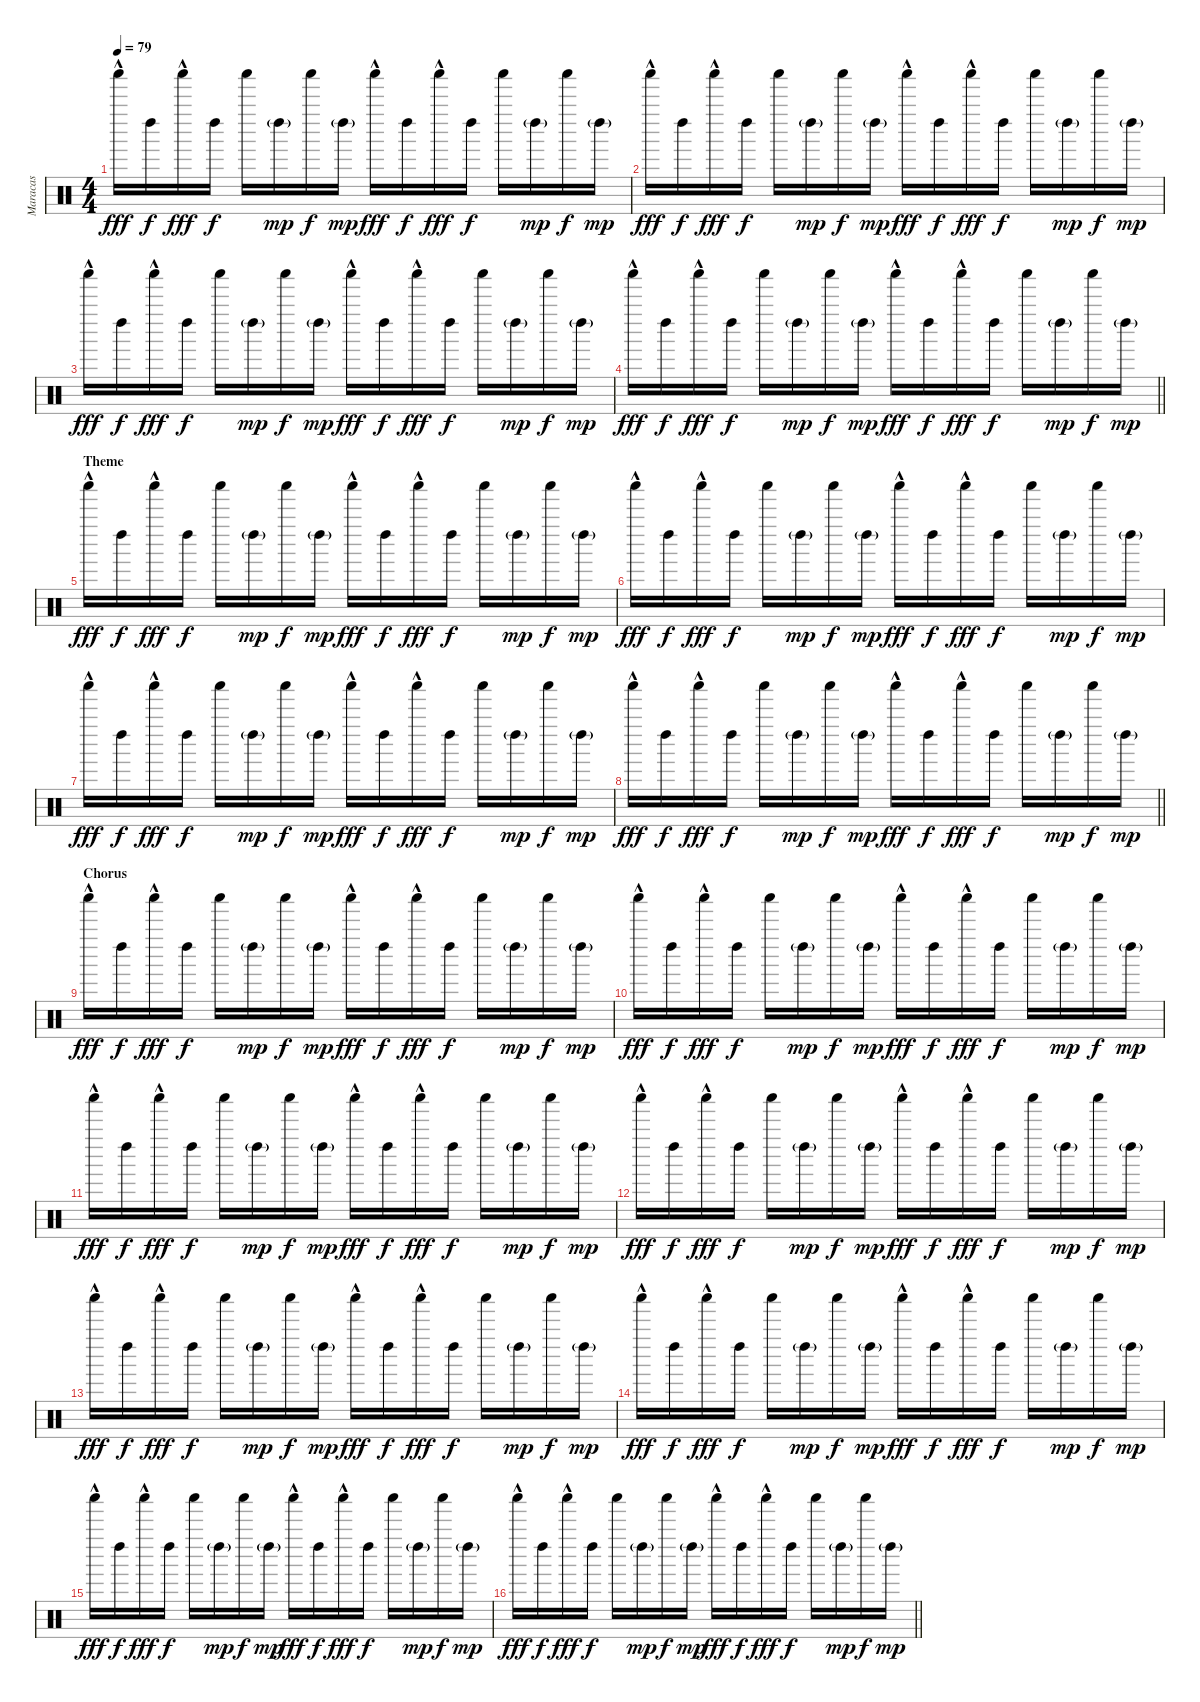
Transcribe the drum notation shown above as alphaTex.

\track ("Maracas" "Maracas") {instrument percussion}
\staff {score}
\articulation defaults
\ts (4 4)
\tempo 79
\clef neutral
\ks c "Shaker (hit)"{hac}.16{dy fff} "Left Maraca (hit)".16{dy f} "Shaker (hit)"{hac}.16{dy fff} "Left Maraca (hit)".16{dy f} "Shaker (hit)".16 "Left Maraca (hit)"{g}.16{dy mp} "Shaker (hit)".16{dy f} "Left Maraca (hit)"{g}.16{dy mp} "Shaker (hit)"{hac}.16{dy fff} "Left Maraca (hit)".16{dy f} "Shaker (hit)"{hac}.16{dy fff} "Left Maraca (hit)".16{dy f} "Shaker (hit)".16 "Left Maraca (hit)"{g}.16{dy mp} "Shaker (hit)".16{dy f} "Left Maraca (hit)"{g}.16{dy mp}
|
"Shaker (hit)"{hac}.16{dy fff} "Left Maraca (hit)".16{dy f} "Shaker (hit)"{hac}.16{dy fff} "Left Maraca (hit)".16{dy f} "Shaker (hit)".16 "Left Maraca (hit)"{g}.16{dy mp} "Shaker (hit)".16{dy f} "Left Maraca (hit)"{g}.16{dy mp} "Shaker (hit)"{hac}.16{dy fff} "Left Maraca (hit)".16{dy f} "Shaker (hit)"{hac}.16{dy fff} "Left Maraca (hit)".16{dy f} "Shaker (hit)".16 "Left Maraca (hit)"{g}.16{dy mp} "Shaker (hit)".16{dy f} "Left Maraca (hit)"{g}.16{dy mp} |
"Shaker (hit)"{hac}.16{dy fff} "Left Maraca (hit)".16{dy f} "Shaker (hit)"{hac}.16{dy fff} "Left Maraca (hit)".16{dy f} "Shaker (hit)".16 "Left Maraca (hit)"{g}.16{dy mp} "Shaker (hit)".16{dy f} "Left Maraca (hit)"{g}.16{dy mp} "Shaker (hit)"{hac}.16{dy fff} "Left Maraca (hit)".16{dy f} "Shaker (hit)"{hac}.16{dy fff} "Left Maraca (hit)".16{dy f} "Shaker (hit)".16 "Left Maraca (hit)"{g}.16{dy mp} "Shaker (hit)".16{dy f} "Left Maraca (hit)"{g}.16{dy mp} |
\barLineRight lightlight "Shaker (hit)"{hac}.16{dy fff} "Left Maraca (hit)".16{dy f} "Shaker (hit)"{hac}.16{dy fff} "Left Maraca (hit)".16{dy f} "Shaker (hit)".16 "Left Maraca (hit)"{g}.16{dy mp} "Shaker (hit)".16{dy f} "Left Maraca (hit)"{g}.16{dy mp} "Shaker (hit)"{hac}.16{dy fff} "Left Maraca (hit)".16{dy f} "Shaker (hit)"{hac}.16{dy fff} "Left Maraca (hit)".16{dy f} "Shaker (hit)".16 "Left Maraca (hit)"{g}.16{dy mp} "Shaker (hit)".16{dy f} "Left Maraca (hit)"{g}.16{dy mp}
|
\section ("" "Theme")
"Shaker (hit)"{hac}.16{dy fff} "Left Maraca (hit)".16{dy f} "Shaker (hit)"{hac}.16{dy fff} "Left Maraca (hit)".16{dy f} "Shaker (hit)".16 "Left Maraca (hit)"{g}.16{dy mp} "Shaker (hit)".16{dy f} "Left Maraca (hit)"{g}.16{dy mp} "Shaker (hit)"{hac}.16{dy fff} "Left Maraca (hit)".16{dy f} "Shaker (hit)"{hac}.16{dy fff} "Left Maraca (hit)".16{dy f} "Shaker (hit)".16 "Left Maraca (hit)"{g}.16{dy mp} "Shaker (hit)".16{dy f} "Left Maraca (hit)"{g}.16{dy mp} |
"Shaker (hit)"{hac}.16{dy fff} "Left Maraca (hit)".16{dy f} "Shaker (hit)"{hac}.16{dy fff} "Left Maraca (hit)".16{dy f} "Shaker (hit)".16 "Left Maraca (hit)"{g}.16{dy mp} "Shaker (hit)".16{dy f} "Left Maraca (hit)"{g}.16{dy mp} "Shaker (hit)"{hac}.16{dy fff} "Left Maraca (hit)".16{dy f} "Shaker (hit)"{hac}.16{dy fff} "Left Maraca (hit)".16{dy f} "Shaker (hit)".16 "Left Maraca (hit)"{g}.16{dy mp} "Shaker (hit)".16{dy f} "Left Maraca (hit)"{g}.16{dy mp} |
"Shaker (hit)"{hac}.16{dy fff} "Left Maraca (hit)".16{dy f} "Shaker (hit)"{hac}.16{dy fff} "Left Maraca (hit)".16{dy f} "Shaker (hit)".16 "Left Maraca (hit)"{g}.16{dy mp} "Shaker (hit)".16{dy f} "Left Maraca (hit)"{g}.16{dy mp} "Shaker (hit)"{hac}.16{dy fff} "Left Maraca (hit)".16{dy f} "Shaker (hit)"{hac}.16{dy fff} "Left Maraca (hit)".16{dy f} "Shaker (hit)".16 "Left Maraca (hit)"{g}.16{dy mp} "Shaker (hit)".16{dy f} "Left Maraca (hit)"{g}.16{dy mp} |
\barLineRight lightlight "Shaker (hit)"{hac}.16{dy fff} "Left Maraca (hit)".16{dy f} "Shaker (hit)"{hac}.16{dy fff} "Left Maraca (hit)".16{dy f} "Shaker (hit)".16 "Left Maraca (hit)"{g}.16{dy mp} "Shaker (hit)".16{dy f} "Left Maraca (hit)"{g}.16{dy mp} "Shaker (hit)"{hac}.16{dy fff} "Left Maraca (hit)".16{dy f} "Shaker (hit)"{hac}.16{dy fff} "Left Maraca (hit)".16{dy f} "Shaker (hit)".16 "Left Maraca (hit)"{g}.16{dy mp} "Shaker (hit)".16{dy f} "Left Maraca (hit)"{g}.16{dy mp}
|
\section ("" "Chorus")
"Shaker (hit)"{hac}.16{dy fff} "Left Maraca (hit)".16{dy f} "Shaker (hit)"{hac}.16{dy fff} "Left Maraca (hit)".16{dy f} "Shaker (hit)".16 "Left Maraca (hit)"{g}.16{dy mp} "Shaker (hit)".16{dy f} "Left Maraca (hit)"{g}.16{dy mp} "Shaker (hit)"{hac}.16{dy fff} "Left Maraca (hit)".16{dy f} "Shaker (hit)"{hac}.16{dy fff} "Left Maraca (hit)".16{dy f} "Shaker (hit)".16 "Left Maraca (hit)"{g}.16{dy mp} "Shaker (hit)".16{dy f} "Left Maraca (hit)"{g}.16{dy mp} |
"Shaker (hit)"{hac}.16{dy fff} "Left Maraca (hit)".16{dy f} "Shaker (hit)"{hac}.16{dy fff} "Left Maraca (hit)".16{dy f} "Shaker (hit)".16 "Left Maraca (hit)"{g}.16{dy mp} "Shaker (hit)".16{dy f} "Left Maraca (hit)"{g}.16{dy mp} "Shaker (hit)"{hac}.16{dy fff} "Left Maraca (hit)".16{dy f} "Shaker (hit)"{hac}.16{dy fff} "Left Maraca (hit)".16{dy f} "Shaker (hit)".16 "Left Maraca (hit)"{g}.16{dy mp} "Shaker (hit)".16{dy f} "Left Maraca (hit)"{g}.16{dy mp} |
"Shaker (hit)"{hac}.16{dy fff} "Left Maraca (hit)".16{dy f} "Shaker (hit)"{hac}.16{dy fff} "Left Maraca (hit)".16{dy f} "Shaker (hit)".16 "Left Maraca (hit)"{g}.16{dy mp} "Shaker (hit)".16{dy f} "Left Maraca (hit)"{g}.16{dy mp} "Shaker (hit)"{hac}.16{dy fff} "Left Maraca (hit)".16{dy f} "Shaker (hit)"{hac}.16{dy fff} "Left Maraca (hit)".16{dy f} "Shaker (hit)".16 "Left Maraca (hit)"{g}.16{dy mp} "Shaker (hit)".16{dy f} "Left Maraca (hit)"{g}.16{dy mp} |
"Shaker (hit)"{hac}.16{dy fff} "Left Maraca (hit)".16{dy f} "Shaker (hit)"{hac}.16{dy fff} "Left Maraca (hit)".16{dy f} "Shaker (hit)".16 "Left Maraca (hit)"{g}.16{dy mp} "Shaker (hit)".16{dy f} "Left Maraca (hit)"{g}.16{dy mp} "Shaker (hit)"{hac}.16{dy fff} "Left Maraca (hit)".16{dy f} "Shaker (hit)"{hac}.16{dy fff} "Left Maraca (hit)".16{dy f} "Shaker (hit)".16 "Left Maraca (hit)"{g}.16{dy mp} "Shaker (hit)".16{dy f} "Left Maraca (hit)"{g}.16{dy mp} |
"Shaker (hit)"{hac}.16{dy fff} "Left Maraca (hit)".16{dy f} "Shaker (hit)"{hac}.16{dy fff} "Left Maraca (hit)".16{dy f} "Shaker (hit)".16 "Left Maraca (hit)"{g}.16{dy mp} "Shaker (hit)".16{dy f} "Left Maraca (hit)"{g}.16{dy mp} "Shaker (hit)"{hac}.16{dy fff} "Left Maraca (hit)".16{dy f} "Shaker (hit)"{hac}.16{dy fff} "Left Maraca (hit)".16{dy f} "Shaker (hit)".16 "Left Maraca (hit)"{g}.16{dy mp} "Shaker (hit)".16{dy f} "Left Maraca (hit)"{g}.16{dy mp} |
"Shaker (hit)"{hac}.16{dy fff} "Left Maraca (hit)".16{dy f} "Shaker (hit)"{hac}.16{dy fff} "Left Maraca (hit)".16{dy f} "Shaker (hit)".16 "Left Maraca (hit)"{g}.16{dy mp} "Shaker (hit)".16{dy f} "Left Maraca (hit)"{g}.16{dy mp} "Shaker (hit)"{hac}.16{dy fff} "Left Maraca (hit)".16{dy f} "Shaker (hit)"{hac}.16{dy fff} "Left Maraca (hit)".16{dy f} "Shaker (hit)".16 "Left Maraca (hit)"{g}.16{dy mp} "Shaker (hit)".16{dy f} "Left Maraca (hit)"{g}.16{dy mp} |
"Shaker (hit)"{hac}.16{dy fff} "Left Maraca (hit)".16{dy f} "Shaker (hit)"{hac}.16{dy fff} "Left Maraca (hit)".16{dy f} "Shaker (hit)".16 "Left Maraca (hit)"{g}.16{dy mp} "Shaker (hit)".16{dy f} "Left Maraca (hit)"{g}.16{dy mp} "Shaker (hit)"{hac}.16{dy fff} "Left Maraca (hit)".16{dy f} "Shaker (hit)"{hac}.16{dy fff} "Left Maraca (hit)".16{dy f} "Shaker (hit)".16 "Left Maraca (hit)"{g}.16{dy mp} "Shaker (hit)".16{dy f} "Left Maraca (hit)"{g}.16{dy mp} |
\barLineRight lightlight "Shaker (hit)"{hac}.16{dy fff} "Left Maraca (hit)".16{dy f} "Shaker (hit)"{hac}.16{dy fff} "Left Maraca (hit)".16{dy f} "Shaker (hit)".16 "Left Maraca (hit)"{g}.16{dy mp} "Shaker (hit)".16{dy f} "Left Maraca (hit)"{g}.16{dy mp} "Shaker (hit)"{hac}.16{dy fff} "Left Maraca (hit)".16{dy f} "Shaker (hit)"{hac}.16{dy fff} "Left Maraca (hit)".16{dy f} "Shaker (hit)".16 "Left Maraca (hit)"{g}.16{dy mp} "Shaker (hit)".16{dy f} "Left Maraca (hit)"{g}.16{dy mp}
